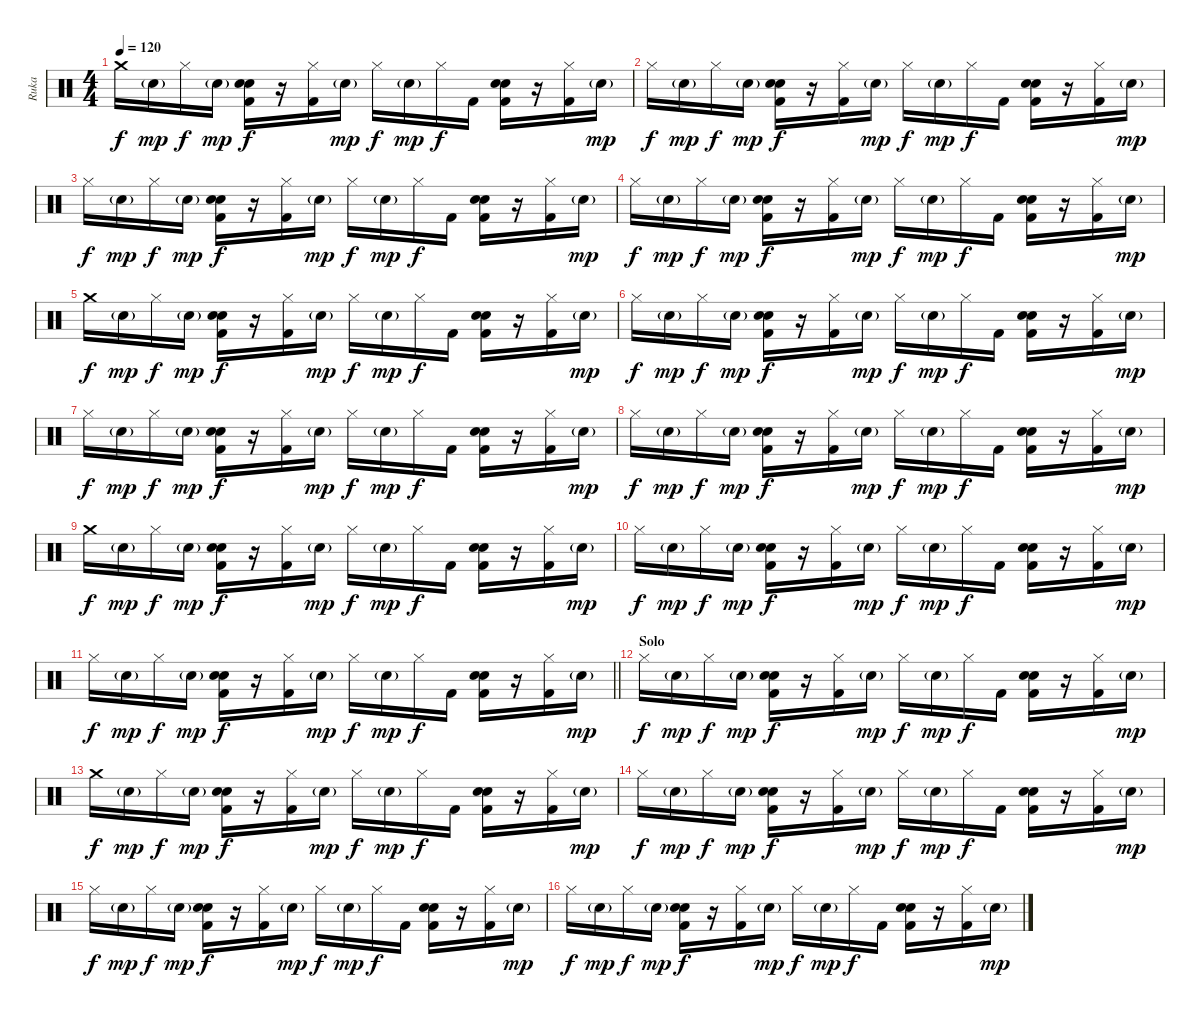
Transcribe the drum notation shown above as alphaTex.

\track ("Ruka" "Ruka") {instrument percussion}
\staff {score}
\articulation defaults
\ts (4 4)
\tempo 120
\clef neutral
\ks c "Crash medium (hit)".16{dy f} "Snare (hit) 2"{g}.16{dy mp} "Hi-Hat (closed)".16{dy f} "Snare (hit) 2"{g}.16{dy mp}
("Kick (hit) 2" "Snare (hit) 2" "Snare (hit) 2").16{dy f} r.16 ("Kick (hit) 2" "Hi-Hat (closed)").16 "Snare (hit) 2"{g}.16{dy mp} "Hi-Hat (closed)".16{dy f} "Snare (hit) 2"{g}.16{dy mp} "Hi-Hat (closed)".16{dy f} "Kick (hit) 2".16 ("Kick (hit) 2" "Snare (hit) 2" "Snare (hit) 2").16 r.16 ("Kick (hit) 2" "Hi-Hat (closed)").16 "Snare (hit) 2"{g}.16{dy mp} |
"Hi-Hat (closed)".16{dy f} "Snare (hit) 2"{g}.16{dy mp} "Hi-Hat (closed)".16{dy f} "Snare (hit) 2"{g}.16{dy mp} ("Kick (hit) 2" "Snare (hit) 2" "Snare (hit) 2").16{dy f} r.16 ("Kick (hit) 2" "Hi-Hat (closed)").16 "Snare (hit) 2"{g}.16{dy mp} "Hi-Hat (closed)".16{dy f} "Snare (hit) 2"{g}.16{dy mp} "Hi-Hat (closed)".16{dy f} "Kick (hit) 2".16 ("Kick (hit) 2" "Snare (hit) 2" "Snare (hit) 2").16 r.16 ("Kick (hit) 2" "Hi-Hat (closed)").16 "Snare (hit) 2"{g}.16{dy mp} |
"Hi-Hat (closed)".16{dy f} "Snare (hit) 2"{g}.16{dy mp} "Hi-Hat (closed)".16{dy f} "Snare (hit) 2"{g}.16{dy mp} ("Kick (hit) 2" "Snare (hit) 2" "Snare (hit) 2").16{dy f} r.16 ("Kick (hit) 2" "Hi-Hat (closed)").16 "Snare (hit) 2"{g}.16{dy mp} "Hi-Hat (closed)".16{dy f} "Snare (hit) 2"{g}.16{dy mp} "Hi-Hat (closed)".16{dy f} "Kick (hit) 2".16 ("Kick (hit) 2" "Snare (hit) 2" "Snare (hit) 2").16 r.16 ("Kick (hit) 2" "Hi-Hat (closed)").16 "Snare (hit) 2"{g}.16{dy mp} |
"Hi-Hat (closed)".16{dy f} "Snare (hit) 2"{g}.16{dy mp} "Hi-Hat (closed)".16{dy f} "Snare (hit) 2"{g}.16{dy mp} ("Kick (hit) 2" "Snare (hit) 2" "Snare (hit) 2").16{dy f} r.16 ("Kick (hit) 2" "Hi-Hat (closed)").16 "Snare (hit) 2"{g}.16{dy mp} "Hi-Hat (closed)".16{dy f} "Snare (hit) 2"{g}.16{dy mp} "Hi-Hat (closed)".16{dy f} "Kick (hit) 2".16 ("Kick (hit) 2" "Snare (hit) 2" "Snare (hit) 2").16 r.16 ("Kick (hit) 2" "Hi-Hat (closed)").16 "Snare (hit) 2"{g}.16{dy mp} |
"Crash medium (hit)".16{dy f} "Snare (hit) 2"{g}.16{dy mp} "Hi-Hat (closed)".16{dy f} "Snare (hit) 2"{g}.16{dy mp} ("Kick (hit) 2" "Snare (hit) 2" "Snare (hit) 2").16{dy f} r.16 ("Kick (hit) 2" "Hi-Hat (closed)").16 "Snare (hit) 2"{g}.16{dy mp} "Hi-Hat (closed)".16{dy f} "Snare (hit) 2"{g}.16{dy mp} "Hi-Hat (closed)".16{dy f} "Kick (hit) 2".16 ("Kick (hit) 2" "Snare (hit) 2" "Snare (hit) 2").16 r.16 ("Kick (hit) 2" "Hi-Hat (closed)").16 "Snare (hit) 2"{g}.16{dy mp} |
"Hi-Hat (closed)".16{dy f} "Snare (hit) 2"{g}.16{dy mp} "Hi-Hat (closed)".16{dy f} "Snare (hit) 2"{g}.16{dy mp} ("Kick (hit) 2" "Snare (hit) 2" "Snare (hit) 2").16{dy f} r.16 ("Kick (hit) 2" "Hi-Hat (closed)").16 "Snare (hit) 2"{g}.16{dy mp} "Hi-Hat (closed)".16{dy f} "Snare (hit) 2"{g}.16{dy mp} "Hi-Hat (closed)".16{dy f} "Kick (hit) 2".16 ("Kick (hit) 2" "Snare (hit) 2" "Snare (hit) 2").16 r.16 ("Kick (hit) 2" "Hi-Hat (closed)").16 "Snare (hit) 2"{g}.16{dy mp} |
"Hi-Hat (closed)".16{dy f} "Snare (hit) 2"{g}.16{dy mp} "Hi-Hat (closed)".16{dy f} "Snare (hit) 2"{g}.16{dy mp} ("Kick (hit) 2" "Snare (hit) 2" "Snare (hit) 2").16{dy f} r.16 ("Kick (hit) 2" "Hi-Hat (closed)").16 "Snare (hit) 2"{g}.16{dy mp} "Hi-Hat (closed)".16{dy f} "Snare (hit) 2"{g}.16{dy mp} "Hi-Hat (closed)".16{dy f} "Kick (hit) 2".16 ("Kick (hit) 2" "Snare (hit) 2" "Snare (hit) 2").16 r.16 ("Kick (hit) 2" "Hi-Hat (closed)").16 "Snare (hit) 2"{g}.16{dy mp} |
"Hi-Hat (closed)".16{dy f} "Snare (hit) 2"{g}.16{dy mp} "Hi-Hat (closed)".16{dy f} "Snare (hit) 2"{g}.16{dy mp} ("Kick (hit) 2" "Snare (hit) 2" "Snare (hit) 2").16{dy f} r.16 ("Kick (hit) 2" "Hi-Hat (closed)").16 "Snare (hit) 2"{g}.16{dy mp} "Hi-Hat (closed)".16{dy f} "Snare (hit) 2"{g}.16{dy mp} "Hi-Hat (closed)".16{dy f} "Kick (hit) 2".16 ("Kick (hit) 2" "Snare (hit) 2" "Snare (hit) 2").16 r.16 ("Kick (hit) 2" "Hi-Hat (closed)").16 "Snare (hit) 2"{g}.16{dy mp} |
"Crash medium (hit)".16{dy f} "Snare (hit) 2"{g}.16{dy mp} "Hi-Hat (closed)".16{dy f} "Snare (hit) 2"{g}.16{dy mp} ("Kick (hit) 2" "Snare (hit) 2" "Snare (hit) 2").16{dy f} r.16 ("Kick (hit) 2" "Hi-Hat (closed)").16 "Snare (hit) 2"{g}.16{dy mp} "Hi-Hat (closed)".16{dy f} "Snare (hit) 2"{g}.16{dy mp} "Hi-Hat (closed)".16{dy f} "Kick (hit) 2".16 ("Kick (hit) 2" "Snare (hit) 2" "Snare (hit) 2").16 r.16 ("Kick (hit) 2" "Hi-Hat (closed)").16 "Snare (hit) 2"{g}.16{dy mp} |
"Hi-Hat (closed)".16{dy f} "Snare (hit) 2"{g}.16{dy mp} "Hi-Hat (closed)".16{dy f} "Snare (hit) 2"{g}.16{dy mp} ("Kick (hit) 2" "Snare (hit) 2" "Snare (hit) 2").16{dy f} r.16 ("Kick (hit) 2" "Hi-Hat (closed)").16 "Snare (hit) 2"{g}.16{dy mp} "Hi-Hat (closed)".16{dy f} "Snare (hit) 2"{g}.16{dy mp} "Hi-Hat (closed)".16{dy f} "Kick (hit) 2".16 ("Kick (hit) 2" "Snare (hit) 2" "Snare (hit) 2").16 r.16 ("Kick (hit) 2" "Hi-Hat (closed)").16 "Snare (hit) 2"{g}.16{dy mp} |
\barLineRight lightlight "Hi-Hat (closed)".16{dy f} "Snare (hit) 2"{g}.16{dy mp} "Hi-Hat (closed)".16{dy f} "Snare (hit) 2"{g}.16{dy mp}
("Kick (hit) 2" "Snare (hit) 2" "Snare (hit) 2").16{dy f} r.16 ("Kick (hit) 2" "Hi-Hat (closed)").16 "Snare (hit) 2"{g}.16{dy mp} "Hi-Hat (closed)".16{dy f} "Snare (hit) 2"{g}.16{dy mp} "Hi-Hat (closed)".16{dy f} "Kick (hit) 2".16 ("Kick (hit) 2" "Snare (hit) 2" "Snare (hit) 2").16 r.16 ("Kick (hit) 2" "Hi-Hat (closed)").16 "Snare (hit) 2"{g}.16{dy mp} |
\section ("" "Solo")
"Hi-Hat (closed)".16{dy f} "Snare (hit) 2"{g}.16{dy mp} "Hi-Hat (closed)".16{dy f} "Snare (hit) 2"{g}.16{dy mp} ("Kick (hit) 2" "Snare (hit) 2" "Snare (hit) 2").16{dy f} r.16 ("Kick (hit) 2" "Hi-Hat (closed)").16 "Snare (hit) 2"{g}.16{dy mp} "Hi-Hat (closed)".16{dy f} "Snare (hit) 2"{g}.16{dy mp} "Hi-Hat (closed)".16{dy f} "Kick (hit) 2".16 ("Kick (hit) 2" "Snare (hit) 2" "Snare (hit) 2").16 r.16 ("Kick (hit) 2" "Hi-Hat (closed)").16 "Snare (hit) 2"{g}.16{dy mp} |
"Crash medium (hit)".16{dy f} "Snare (hit) 2"{g}.16{dy mp} "Hi-Hat (closed)".16{dy f} "Snare (hit) 2"{g}.16{dy mp} ("Kick (hit) 2" "Snare (hit) 2" "Snare (hit) 2").16{dy f} r.16 ("Kick (hit) 2" "Hi-Hat (closed)").16 "Snare (hit) 2"{g}.16{dy mp} "Hi-Hat (closed)".16{dy f} "Snare (hit) 2"{g}.16{dy mp} "Hi-Hat (closed)".16{dy f} "Kick (hit) 2".16 ("Kick (hit) 2" "Snare (hit) 2" "Snare (hit) 2").16 r.16 ("Kick (hit) 2" "Hi-Hat (closed)").16 "Snare (hit) 2"{g}.16{dy mp} |
"Hi-Hat (closed)".16{dy f} "Snare (hit) 2"{g}.16{dy mp} "Hi-Hat (closed)".16{dy f} "Snare (hit) 2"{g}.16{dy mp} ("Kick (hit) 2" "Snare (hit) 2" "Snare (hit) 2").16{dy f} r.16 ("Kick (hit) 2" "Hi-Hat (closed)").16 "Snare (hit) 2"{g}.16{dy mp} "Hi-Hat (closed)".16{dy f} "Snare (hit) 2"{g}.16{dy mp} "Hi-Hat (closed)".16{dy f} "Kick (hit) 2".16 ("Kick (hit) 2" "Snare (hit) 2" "Snare (hit) 2").16 r.16 ("Kick (hit) 2" "Hi-Hat (closed)").16 "Snare (hit) 2"{g}.16{dy mp} |
"Hi-Hat (closed)".16{dy f} "Snare (hit) 2"{g}.16{dy mp} "Hi-Hat (closed)".16{dy f} "Snare (hit) 2"{g}.16{dy mp} ("Kick (hit) 2" "Snare (hit) 2" "Snare (hit) 2").16{dy f} r.16 ("Kick (hit) 2" "Hi-Hat (closed)").16 "Snare (hit) 2"{g}.16{dy mp} "Hi-Hat (closed)".16{dy f} "Snare (hit) 2"{g}.16{dy mp} "Hi-Hat (closed)".16{dy f} "Kick (hit) 2".16 ("Kick (hit) 2" "Snare (hit) 2" "Snare (hit) 2").16 r.16 ("Kick (hit) 2" "Hi-Hat (closed)").16 "Snare (hit) 2"{g}.16{dy mp} |
"Hi-Hat (closed)".16{dy f} "Snare (hit) 2"{g}.16{dy mp} "Hi-Hat (closed)".16{dy f} "Snare (hit) 2"{g}.16{dy mp} ("Kick (hit) 2" "Snare (hit) 2" "Snare (hit) 2").16{dy f} r.16 ("Kick (hit) 2" "Hi-Hat (closed)").16 "Snare (hit) 2"{g}.16{dy mp} "Hi-Hat (closed)".16{dy f} "Snare (hit) 2"{g}.16{dy mp} "Hi-Hat (closed)".16{dy f} "Kick (hit) 2".16 ("Kick (hit) 2" "Snare (hit) 2" "Snare (hit) 2").16 r.16 ("Kick (hit) 2" "Hi-Hat (closed)").16 "Snare (hit) 2"{g}.16{dy mp}
